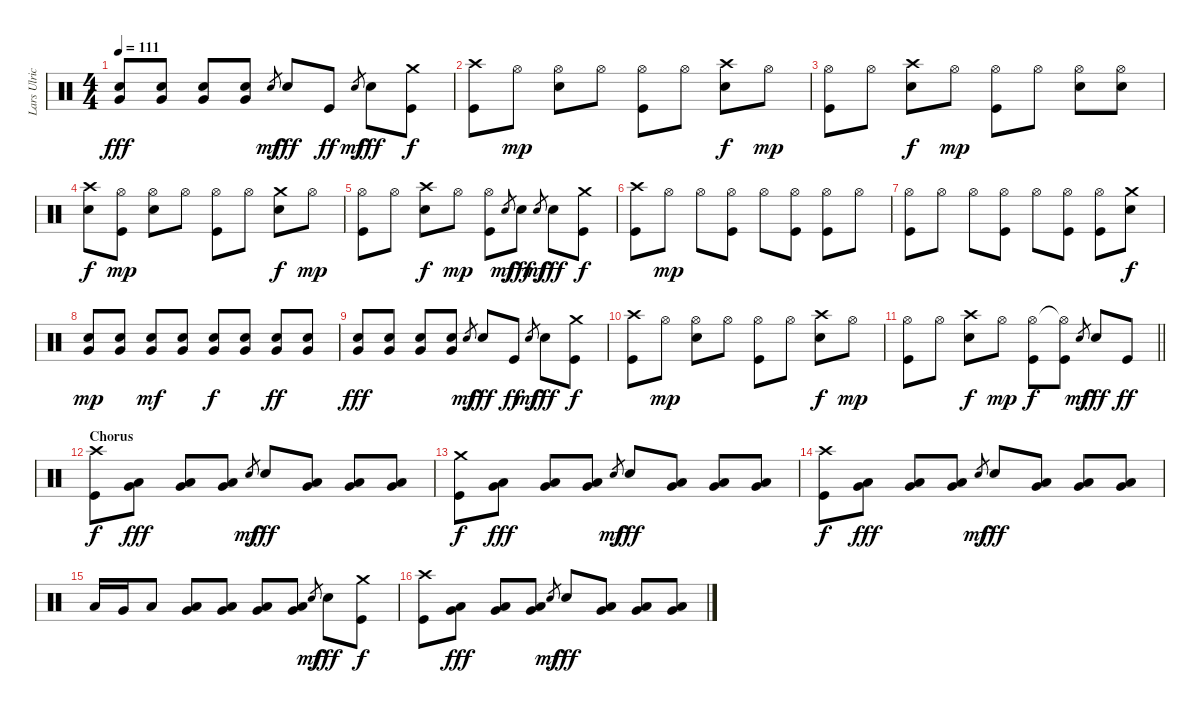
\track ("Lars Ulrich (Drums)" "Lars Ulric") {instrument percussion}
\staff {score}
\articulation defaults
\ts (4 4)
\tempo 111
\clef neutral
\ks c
("Very Low Tom (hit)" "Snare (hit) 2").8{dy fff} ("Very Low Tom (hit)" "Snare (hit) 2").8 ("Very Low Tom (hit)" "Snare (hit) 2").8 ("Very Low Tom (hit)" "Snare (hit) 2").8 "Snare (hit)".8{gr dy mf} "Snare (hit) 2".8{dy fff} "Kick (hit)".8{dy ff} "Snare (hit)".8{gr dy mf} "Snare (hit) 2".8{dy fff} ("Crash medium (hit)" "Kick (hit)").8{dy f} |
("Crash high (hit)" "Kick (hit)").8 "Hi-Hat (open)".8{dy mp} ("Hi-Hat (open)" "Snare (hit) 2").8 "Hi-Hat (open)".8 ("Hi-Hat (open)" "Kick (hit)").8 "Hi-Hat (open)".8 ("Crash high (hit)" "Snare (hit) 2").8{dy f} "Hi-Hat (open)".8{dy mp} |
("Hi-Hat (open)" "Kick (hit)").8 "Hi-Hat (open)".8 ("Crash high (hit)" "Snare (hit) 2").8{dy f} "Hi-Hat (open)".8{dy mp} ("Hi-Hat (open)" "Kick (hit)").8 "Hi-Hat (open)".8 ("Hi-Hat (open)" "Snare (hit) 2").8 ("Hi-Hat (open)" "Snare (hit) 2").8 |
("Crash high (hit)" "Snare (hit) 2").8{dy f} ("Hi-Hat (open)" "Kick (hit)").8{dy mp} ("Hi-Hat (open)" "Snare (hit) 2").8 "Hi-Hat (open)".8 ("Hi-Hat (open)" "Kick (hit)").8 "Hi-Hat (open)".8 ("Crash medium (hit)" "Snare (hit) 2").8{dy f} "Hi-Hat (open)".8{dy mp} |
("Hi-Hat (open)" "Kick (hit)").8 "Hi-Hat (open)".8 ("Crash high (hit)" "Snare (hit) 2").8{dy f} "Hi-Hat (open)".8{dy mp} ("Hi-Hat (open)" "Kick (hit)").8 "Snare (hit)".8{gr dy mf} "Snare (hit) 2".8{dy fff} "Snare (hit)".8{gr dy mf} "Snare (hit) 2".8{dy fff} ("Crash medium (hit)" "Kick (hit)").8{dy f} |
("Crash high (hit)" "Kick (hit)").8 "Hi-Hat (open)".8{dy mp} "Hi-Hat (open)".8 ("Hi-Hat (open)" "Kick (hit)").8 "Hi-Hat (open)".8 ("Hi-Hat (open)" "Kick (hit)").8 ("Hi-Hat (open)" "Kick (hit)").8 "Hi-Hat (open)".8 |
("Hi-Hat (open)" "Kick (hit)").8 "Hi-Hat (open)".8 "Hi-Hat (open)".8 ("Hi-Hat (open)" "Kick (hit)").8 "Hi-Hat (open)".8 ("Hi-Hat (open)" "Kick (hit)").8 ("Hi-Hat (open)" "Kick (hit)").8 ("Crash medium (hit)" "Snare (hit) 2").8{dy f} |
("Very Low Tom (hit)" "Snare (hit) 2").8{dy mp} ("Very Low Tom (hit)" "Snare (hit) 2").8 ("Very Low Tom (hit)" "Snare (hit) 2").8{dy mf} ("Very Low Tom (hit)" "Snare (hit) 2").8 ("Very Low Tom (hit)" "Snare (hit) 2").8{dy f} ("Very Low Tom (hit)" "Snare (hit) 2").8 ("Very Low Tom (hit)" "Snare (hit) 2").8{dy ff} ("Very Low Tom (hit)" "Snare (hit) 2").8 |
("Very Low Tom (hit)" "Snare (hit) 2").8{dy fff} ("Very Low Tom (hit)" "Snare (hit) 2").8 ("Very Low Tom (hit)" "Snare (hit) 2").8 ("Very Low Tom (hit)" "Snare (hit) 2").8 "Snare (hit)".8{gr dy mf} "Snare (hit) 2".8{dy fff} "Kick (hit)".8{dy ff} "Snare (hit)".8{gr dy mf} "Snare (hit) 2".8{dy fff} ("Crash medium (hit)" "Kick (hit)").8{dy f} |
("Crash high (hit)" "Kick (hit)").8 "Hi-Hat (open)".8{dy mp} ("Hi-Hat (open)" "Snare (hit) 2").8 "Hi-Hat (open)".8 ("Hi-Hat (open)" "Kick (hit)").8 "Hi-Hat (open)".8 ("Crash high (hit)" "Snare (hit) 2").8{dy f} "Hi-Hat (open)".8{dy mp} |
\barLineRight lightlight
("Hi-Hat (open)" "Kick (hit)").8 "Hi-Hat (open)".8 ("Crash high (hit)" "Snare (hit) 2").8{dy f} "Hi-Hat (open)".8{dy mp} ("Hi-Hat (open)" "Kick (hit)").8{dy f} ("Hi-Hat (open)"{t} "Kick (hit)").8 "Snare (hit)".8{gr dy mf} "Snare (hit) 2".8{dy fff} "Kick (hit)".8{dy ff} |
\section ("" "Chorus")
("Crash high (hit)" "Kick (hit)").8{dy f} ("Low Tom (hit)" "Very Low Tom (hit)").8{dy fff} ("Low Tom (hit)" "Very Low Tom (hit)").8 ("Low Tom (hit)" "Very Low Tom (hit)").8 "Snare (hit)".8{gr dy mf} "Snare (hit) 2".8{dy fff} ("Low Tom (hit)" "Very Low Tom (hit)").8 ("Low Tom (hit)" "Very Low Tom (hit)").8 ("Very Low Tom (hit)" "Low Floor Tom (hit)").8 |
("Crash medium (hit)" "Kick (hit)").8{dy f} ("Low Tom (hit)" "Very Low Tom (hit)").8{dy fff} ("Low Tom (hit)" "Very Low Tom (hit)").8 ("Low Tom (hit)" "Very Low Tom (hit)").8 "Snare (hit)".8{gr dy mf} "Snare (hit) 2".8{dy fff} ("Low Tom (hit)" "Very Low Tom (hit)").8 ("Low Tom (hit)" "Very Low Tom (hit)").8 ("Very Low Tom (hit)" "Low Floor Tom (hit)").8 |
("Crash high (hit)" "Kick (hit)").8{dy f} ("Low Tom (hit)" "Very Low Tom (hit)").8{dy fff} ("Low Tom (hit)" "Very Low Tom (hit)").8 ("Low Tom (hit)" "Very Low Tom (hit)").8 "Snare (hit)".8{gr dy mf} "Snare (hit) 2".8{dy fff} ("Low Tom (hit)" "Very Low Tom (hit)").8 ("Low Tom (hit)" "Very Low Tom (hit)").8 ("Very Low Tom (hit)" "Low Floor Tom (hit)").8 |
"Low Tom (hit)".16 "Very Low Tom (hit)".16 "Low Floor Tom (hit)".8 ("Very Low Tom (hit)" "Low Floor Tom (hit)").8 ("Very Low Tom (hit)" "Low Floor Tom (hit)").8 ("Very Low Tom (hit)" "Low Floor Tom (hit)").8 ("Very Low Tom (hit)" "Low Floor Tom (hit)").8 "Snare (hit)".8{gr dy mf} "Snare (hit) 2".8{dy fff} ("Crash medium (hit)" "Kick (hit)").8{dy f} |
("Crash high (hit)" "Kick (hit)").8 ("Low Tom (hit)" "Very Low Tom (hit)").8{dy fff} ("Low Tom (hit)" "Very Low Tom (hit)").8 ("Low Tom (hit)" "Very Low Tom (hit)").8 "Snare (hit)".8{gr dy mf} "Snare (hit) 2".8{dy fff} ("Low Tom (hit)" "Very Low Tom (hit)").8 ("Low Tom (hit)" "Very Low Tom (hit)").8 ("Very Low Tom (hit)" "Low Floor Tom (hit)").8
